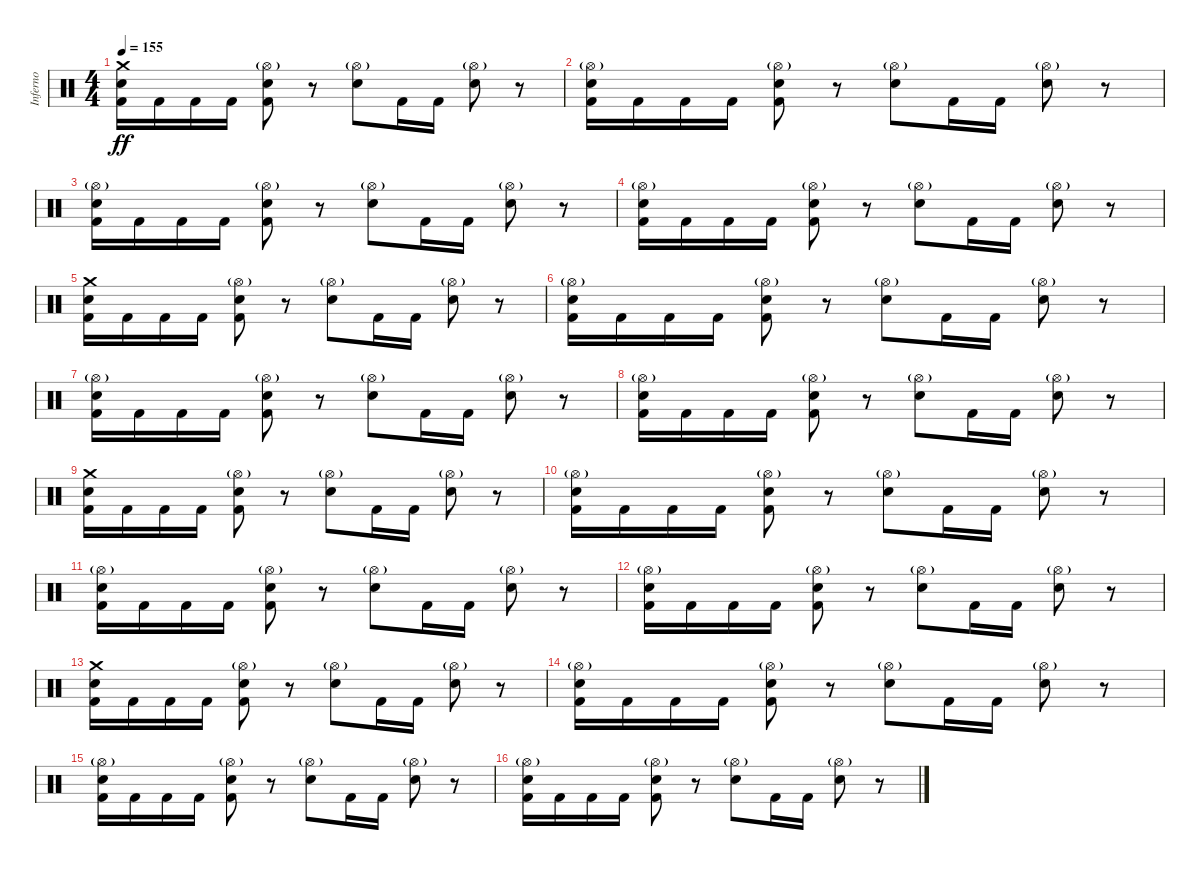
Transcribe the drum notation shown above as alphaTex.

\track ("Inferno" "Inferno") {instrument percussion}
\staff {score}
\articulation defaults
\ts (4 4)
\tempo 155
\clef neutral
\ks c
("Crash medium (hit)" "Snare (hit) 2" "Kick (hit) 2").16{dy ff} "Kick (hit) 2".16 "Kick (hit) 2".16 "Kick (hit) 2".16 ("Hi-Hat (open)"{g} "Snare (hit) 2" "Kick (hit) 2").8 r.8 ("Hi-Hat (open)"{g} "Snare (hit) 2").8 "Kick (hit) 2".16 "Kick (hit) 2".16 ("Hi-Hat (open)"{g} "Snare (hit) 2").8 r.8 |
("Hi-Hat (open)"{g} "Snare (hit) 2" "Kick (hit) 2").16 "Kick (hit) 2".16 "Kick (hit) 2".16 "Kick (hit) 2".16 ("Hi-Hat (open)"{g} "Snare (hit) 2" "Kick (hit) 2").8 r.8 ("Hi-Hat (open)"{g} "Snare (hit) 2").8 "Kick (hit) 2".16 "Kick (hit) 2".16 ("Hi-Hat (open)"{g} "Snare (hit) 2").8 r.8 |
("Hi-Hat (open)"{g} "Snare (hit) 2" "Kick (hit) 2").16 "Kick (hit) 2".16 "Kick (hit) 2".16 "Kick (hit) 2".16 ("Hi-Hat (open)"{g} "Snare (hit) 2" "Kick (hit) 2").8 r.8 ("Hi-Hat (open)"{g} "Snare (hit) 2").8 "Kick (hit) 2".16 "Kick (hit) 2".16 ("Hi-Hat (open)"{g} "Snare (hit) 2").8 r.8 |
("Hi-Hat (open)"{g} "Snare (hit) 2" "Kick (hit) 2").16 "Kick (hit) 2".16 "Kick (hit) 2".16 "Kick (hit) 2".16 ("Hi-Hat (open)"{g} "Snare (hit) 2" "Kick (hit) 2").8 r.8 ("Hi-Hat (open)"{g} "Snare (hit) 2").8 "Kick (hit) 2".16 "Kick (hit) 2".16 ("Hi-Hat (open)"{g} "Snare (hit) 2").8 r.8 |
("Crash medium (hit)" "Snare (hit) 2" "Kick (hit) 2").16 "Kick (hit) 2".16 "Kick (hit) 2".16 "Kick (hit) 2".16 ("Hi-Hat (open)"{g} "Snare (hit) 2" "Kick (hit) 2").8 r.8 ("Hi-Hat (open)"{g} "Snare (hit) 2").8 "Kick (hit) 2".16 "Kick (hit) 2".16 ("Hi-Hat (open)"{g} "Snare (hit) 2").8 r.8 |
("Hi-Hat (open)"{g} "Snare (hit) 2" "Kick (hit) 2").16 "Kick (hit) 2".16 "Kick (hit) 2".16 "Kick (hit) 2".16 ("Hi-Hat (open)"{g} "Snare (hit) 2" "Kick (hit) 2").8 r.8 ("Hi-Hat (open)"{g} "Snare (hit) 2").8 "Kick (hit) 2".16 "Kick (hit) 2".16 ("Hi-Hat (open)"{g} "Snare (hit) 2").8 r.8 |
("Hi-Hat (open)"{g} "Snare (hit) 2" "Kick (hit) 2").16 "Kick (hit) 2".16 "Kick (hit) 2".16 "Kick (hit) 2".16 ("Hi-Hat (open)"{g} "Snare (hit) 2" "Kick (hit) 2").8 r.8 ("Hi-Hat (open)"{g} "Snare (hit) 2").8 "Kick (hit) 2".16 "Kick (hit) 2".16 ("Hi-Hat (open)"{g} "Snare (hit) 2").8 r.8 |
("Hi-Hat (open)"{g} "Snare (hit) 2" "Kick (hit) 2").16 "Kick (hit) 2".16 "Kick (hit) 2".16 "Kick (hit) 2".16 ("Hi-Hat (open)"{g} "Snare (hit) 2" "Kick (hit) 2").8 r.8 ("Hi-Hat (open)"{g} "Snare (hit) 2").8 "Kick (hit) 2".16 "Kick (hit) 2".16 ("Hi-Hat (open)"{g} "Snare (hit) 2").8 r.8 |
("Crash medium (hit)" "Snare (hit) 2" "Kick (hit) 2").16 "Kick (hit) 2".16 "Kick (hit) 2".16 "Kick (hit) 2".16 ("Hi-Hat (open)"{g} "Snare (hit) 2" "Kick (hit) 2").8 r.8 ("Hi-Hat (open)"{g} "Snare (hit) 2").8 "Kick (hit) 2".16 "Kick (hit) 2".16 ("Hi-Hat (open)"{g} "Snare (hit) 2").8 r.8 |
("Hi-Hat (open)"{g} "Snare (hit) 2" "Kick (hit) 2").16 "Kick (hit) 2".16 "Kick (hit) 2".16 "Kick (hit) 2".16 ("Hi-Hat (open)"{g} "Snare (hit) 2" "Kick (hit) 2").8 r.8 ("Hi-Hat (open)"{g} "Snare (hit) 2").8 "Kick (hit) 2".16 "Kick (hit) 2".16 ("Hi-Hat (open)"{g} "Snare (hit) 2").8 r.8 |
("Hi-Hat (open)"{g} "Snare (hit) 2" "Kick (hit) 2").16 "Kick (hit) 2".16 "Kick (hit) 2".16 "Kick (hit) 2".16 ("Hi-Hat (open)"{g} "Snare (hit) 2" "Kick (hit) 2").8 r.8 ("Hi-Hat (open)"{g} "Snare (hit) 2").8 "Kick (hit) 2".16 "Kick (hit) 2".16 ("Hi-Hat (open)"{g} "Snare (hit) 2").8 r.8 |
("Hi-Hat (open)"{g} "Snare (hit) 2" "Kick (hit) 2").16 "Kick (hit) 2".16 "Kick (hit) 2".16 "Kick (hit) 2".16 ("Hi-Hat (open)"{g} "Snare (hit) 2" "Kick (hit) 2").8 r.8 ("Hi-Hat (open)"{g} "Snare (hit) 2").8 "Kick (hit) 2".16 "Kick (hit) 2".16 ("Hi-Hat (open)"{g} "Snare (hit) 2").8 r.8 |
("Crash medium (hit)" "Snare (hit) 2" "Kick (hit) 2").16 "Kick (hit) 2".16 "Kick (hit) 2".16 "Kick (hit) 2".16 ("Hi-Hat (open)"{g} "Snare (hit) 2" "Kick (hit) 2").8 r.8 ("Hi-Hat (open)"{g} "Snare (hit) 2").8 "Kick (hit) 2".16 "Kick (hit) 2".16 ("Hi-Hat (open)"{g} "Snare (hit) 2").8 r.8 |
("Hi-Hat (open)"{g} "Snare (hit) 2" "Kick (hit) 2").16 "Kick (hit) 2".16 "Kick (hit) 2".16 "Kick (hit) 2".16 ("Hi-Hat (open)"{g} "Snare (hit) 2" "Kick (hit) 2").8 r.8 ("Hi-Hat (open)"{g} "Snare (hit) 2").8 "Kick (hit) 2".16 "Kick (hit) 2".16 ("Hi-Hat (open)"{g} "Snare (hit) 2").8 r.8 |
("Hi-Hat (open)"{g} "Snare (hit) 2" "Kick (hit) 2").16 "Kick (hit) 2".16 "Kick (hit) 2".16 "Kick (hit) 2".16 ("Hi-Hat (open)"{g} "Snare (hit) 2" "Kick (hit) 2").8 r.8 ("Hi-Hat (open)"{g} "Snare (hit) 2").8 "Kick (hit) 2".16 "Kick (hit) 2".16 ("Hi-Hat (open)"{g} "Snare (hit) 2").8 r.8 |
("Hi-Hat (open)"{g} "Snare (hit) 2" "Kick (hit) 2").16 "Kick (hit) 2".16 "Kick (hit) 2".16 "Kick (hit) 2".16 ("Hi-Hat (open)"{g} "Snare (hit) 2" "Kick (hit) 2").8 r.8 ("Hi-Hat (open)"{g} "Snare (hit) 2").8 "Kick (hit) 2".16 "Kick (hit) 2".16 ("Hi-Hat (open)"{g} "Snare (hit) 2").8 r.8
